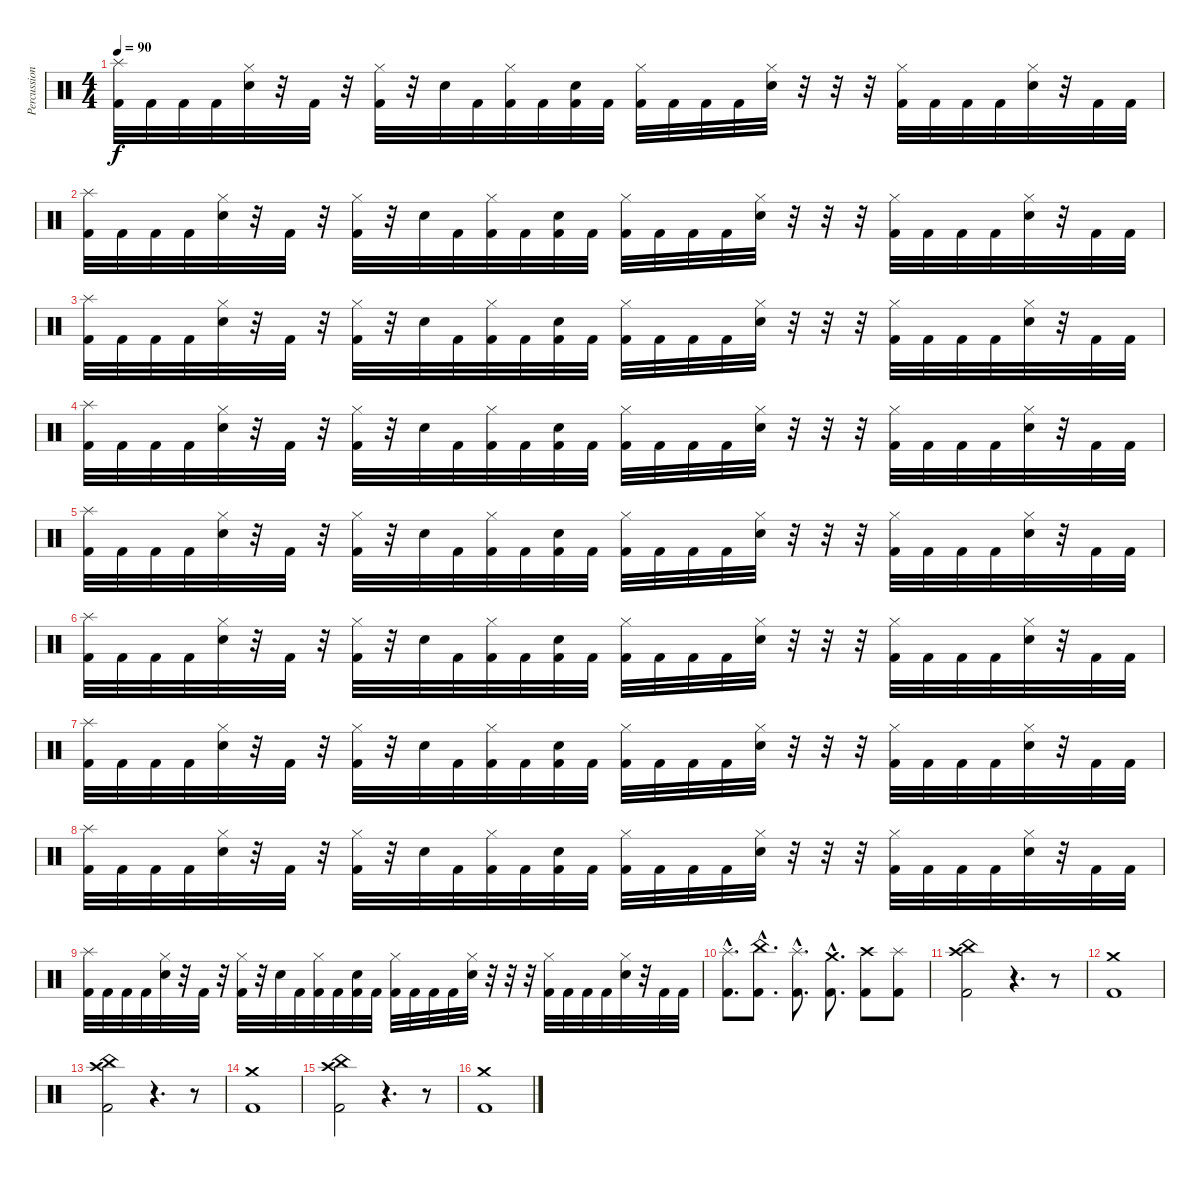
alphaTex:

\track ("Percussion" "Percussion") {instrument percussion}
\staff {score}
\articulation defaults
\ts (4 4)
\tempo 90
\clef neutral
\ks c
("Splash (hit)" "Kick (hit) 2").32{dy f} "Kick (hit) 2".32 "Kick (hit) 2".32 "Kick (hit) 2".32 ("Hi-Hat (closed)" "Snare (hit) 2").32 r.32 "Kick (hit) 2".32 r.32 ("Kick (hit) 2" "Hi-Hat (closed)").32 r.32 "Snare (hit) 2".32 "Kick (hit) 2".32 ("Kick (hit) 2" "Hi-Hat (closed)").32 "Kick (hit) 2".32 ("Snare (hit) 2" "Kick (hit) 2").32 "Kick (hit) 2".32 ("Kick (hit) 2" "Hi-Hat (closed)").32 "Kick (hit) 2".32 "Kick (hit) 2".32 "Kick (hit) 2".32 ("Snare (hit) 2" "Hi-Hat (closed)").32 r.32 r.32 r.32 ("Kick (hit) 2" "Hi-Hat (closed)").32 "Kick (hit) 2".32 "Kick (hit) 2".32 "Kick (hit) 2".32 ("Snare (hit) 2" "Hi-Hat (closed)").32 r.32 "Kick (hit) 2".32 "Kick (hit) 2".32 |
("Splash (hit)" "Kick (hit) 2").32 "Kick (hit) 2".32 "Kick (hit) 2".32 "Kick (hit) 2".32 ("Hi-Hat (closed)" "Snare (hit) 2").32 r.32 "Kick (hit) 2".32 r.32 ("Kick (hit) 2" "Hi-Hat (closed)").32 r.32 "Snare (hit) 2".32 "Kick (hit) 2".32 ("Kick (hit) 2" "Hi-Hat (closed)").32 "Kick (hit) 2".32 ("Snare (hit) 2" "Kick (hit) 2").32 "Kick (hit) 2".32 ("Kick (hit) 2" "Hi-Hat (closed)").32 "Kick (hit) 2".32 "Kick (hit) 2".32 "Kick (hit) 2".32 ("Snare (hit) 2" "Hi-Hat (closed)").32 r.32 r.32 r.32 ("Kick (hit) 2" "Hi-Hat (closed)").32 "Kick (hit) 2".32 "Kick (hit) 2".32 "Kick (hit) 2".32 ("Snare (hit) 2" "Hi-Hat (closed)").32 r.32 "Kick (hit) 2".32 "Kick (hit) 2".32 |
("Splash (hit)" "Kick (hit) 2").32 "Kick (hit) 2".32 "Kick (hit) 2".32 "Kick (hit) 2".32 ("Hi-Hat (closed)" "Snare (hit) 2").32 r.32 "Kick (hit) 2".32 r.32 ("Kick (hit) 2" "Hi-Hat (closed)").32 r.32 "Snare (hit) 2".32 "Kick (hit) 2".32 ("Kick (hit) 2" "Hi-Hat (closed)").32 "Kick (hit) 2".32 ("Snare (hit) 2" "Kick (hit) 2").32 "Kick (hit) 2".32 ("Kick (hit) 2" "Hi-Hat (closed)").32 "Kick (hit) 2".32 "Kick (hit) 2".32 "Kick (hit) 2".32 ("Snare (hit) 2" "Hi-Hat (closed)").32 r.32 r.32 r.32 ("Kick (hit) 2" "Hi-Hat (closed)").32 "Kick (hit) 2".32 "Kick (hit) 2".32 "Kick (hit) 2".32 ("Snare (hit) 2" "Hi-Hat (closed)").32 r.32 "Kick (hit) 2".32 "Kick (hit) 2".32 |
("Splash (hit)" "Kick (hit) 2").32 "Kick (hit) 2".32 "Kick (hit) 2".32 "Kick (hit) 2".32 ("Hi-Hat (closed)" "Snare (hit) 2").32 r.32 "Kick (hit) 2".32 r.32 ("Kick (hit) 2" "Hi-Hat (closed)").32 r.32 "Snare (hit) 2".32 "Kick (hit) 2".32 ("Kick (hit) 2" "Hi-Hat (closed)").32 "Kick (hit) 2".32 ("Snare (hit) 2" "Kick (hit) 2").32 "Kick (hit) 2".32 ("Kick (hit) 2" "Hi-Hat (closed)").32 "Kick (hit) 2".32 "Kick (hit) 2".32 "Kick (hit) 2".32 ("Snare (hit) 2" "Hi-Hat (closed)").32 r.32 r.32 r.32 ("Kick (hit) 2" "Hi-Hat (closed)").32 "Kick (hit) 2".32 "Kick (hit) 2".32 "Kick (hit) 2".32 ("Snare (hit) 2" "Hi-Hat (closed)").32 r.32 "Kick (hit) 2".32 "Kick (hit) 2".32 |
("Splash (hit)" "Kick (hit) 2").32 "Kick (hit) 2".32 "Kick (hit) 2".32 "Kick (hit) 2".32 ("Hi-Hat (closed)" "Snare (hit) 2").32 r.32 "Kick (hit) 2".32 r.32 ("Kick (hit) 2" "Hi-Hat (closed)").32 r.32 "Snare (hit) 2".32 "Kick (hit) 2".32 ("Kick (hit) 2" "Hi-Hat (closed)").32 "Kick (hit) 2".32 ("Snare (hit) 2" "Kick (hit) 2").32 "Kick (hit) 2".32 ("Kick (hit) 2" "Hi-Hat (closed)").32 "Kick (hit) 2".32 "Kick (hit) 2".32 "Kick (hit) 2".32 ("Snare (hit) 2" "Hi-Hat (closed)").32 r.32 r.32 r.32 ("Kick (hit) 2" "Hi-Hat (closed)").32 "Kick (hit) 2".32 "Kick (hit) 2".32 "Kick (hit) 2".32 ("Snare (hit) 2" "Hi-Hat (closed)").32 r.32 "Kick (hit) 2".32 "Kick (hit) 2".32 |
("Splash (hit)" "Kick (hit) 2").32 "Kick (hit) 2".32 "Kick (hit) 2".32 "Kick (hit) 2".32 ("Hi-Hat (closed)" "Snare (hit) 2").32 r.32 "Kick (hit) 2".32 r.32 ("Kick (hit) 2" "Hi-Hat (closed)").32 r.32 "Snare (hit) 2".32 "Kick (hit) 2".32 ("Kick (hit) 2" "Hi-Hat (closed)").32 "Kick (hit) 2".32 ("Snare (hit) 2" "Kick (hit) 2").32 "Kick (hit) 2".32 ("Kick (hit) 2" "Hi-Hat (closed)").32 "Kick (hit) 2".32 "Kick (hit) 2".32 "Kick (hit) 2".32 ("Snare (hit) 2" "Hi-Hat (closed)").32 r.32 r.32 r.32 ("Kick (hit) 2" "Hi-Hat (closed)").32 "Kick (hit) 2".32 "Kick (hit) 2".32 "Kick (hit) 2".32 ("Snare (hit) 2" "Hi-Hat (closed)").32 r.32 "Kick (hit) 2".32 "Kick (hit) 2".32 |
("Splash (hit)" "Kick (hit) 2").32 "Kick (hit) 2".32 "Kick (hit) 2".32 "Kick (hit) 2".32 ("Hi-Hat (closed)" "Snare (hit) 2").32 r.32 "Kick (hit) 2".32 r.32 ("Kick (hit) 2" "Hi-Hat (closed)").32 r.32 "Snare (hit) 2".32 "Kick (hit) 2".32 ("Kick (hit) 2" "Hi-Hat (closed)").32 "Kick (hit) 2".32 ("Snare (hit) 2" "Kick (hit) 2").32 "Kick (hit) 2".32 ("Kick (hit) 2" "Hi-Hat (closed)").32 "Kick (hit) 2".32 "Kick (hit) 2".32 "Kick (hit) 2".32 ("Snare (hit) 2" "Hi-Hat (closed)").32 r.32 r.32 r.32 ("Kick (hit) 2" "Hi-Hat (closed)").32 "Kick (hit) 2".32 "Kick (hit) 2".32 "Kick (hit) 2".32 ("Snare (hit) 2" "Hi-Hat (closed)").32 r.32 "Kick (hit) 2".32 "Kick (hit) 2".32 |
("Splash (hit)" "Kick (hit) 2").32 "Kick (hit) 2".32 "Kick (hit) 2".32 "Kick (hit) 2".32 ("Hi-Hat (closed)" "Snare (hit) 2").32 r.32 "Kick (hit) 2".32 r.32 ("Kick (hit) 2" "Hi-Hat (closed)").32 r.32 "Snare (hit) 2".32 "Kick (hit) 2".32 ("Kick (hit) 2" "Hi-Hat (closed)").32 "Kick (hit) 2".32 ("Snare (hit) 2" "Kick (hit) 2").32 "Kick (hit) 2".32 ("Kick (hit) 2" "Hi-Hat (closed)").32 "Kick (hit) 2".32 "Kick (hit) 2".32 "Kick (hit) 2".32 ("Snare (hit) 2" "Hi-Hat (closed)").32 r.32 r.32 r.32 ("Kick (hit) 2" "Hi-Hat (closed)").32 "Kick (hit) 2".32 "Kick (hit) 2".32 "Kick (hit) 2".32 ("Snare (hit) 2" "Hi-Hat (closed)").32 r.32 "Kick (hit) 2".32 "Kick (hit) 2".32 |
("Splash (hit)" "Kick (hit) 2").32 "Kick (hit) 2".32 "Kick (hit) 2".32 "Kick (hit) 2".32 ("Hi-Hat (closed)" "Snare (hit) 2").32 r.32 "Kick (hit) 2".32 r.32 ("Kick (hit) 2" "Hi-Hat (closed)").32 r.32 "Snare (hit) 2".32 "Kick (hit) 2".32 ("Kick (hit) 2" "Hi-Hat (closed)").32 "Kick (hit) 2".32 ("Snare (hit) 2" "Kick (hit) 2").32 "Kick (hit) 2".32 ("Kick (hit) 2" "Hi-Hat (closed)").32 "Kick (hit) 2".32 "Kick (hit) 2".32 "Kick (hit) 2".32 ("Snare (hit) 2" "Hi-Hat (closed)").32 r.32 r.32 r.32 ("Kick (hit) 2" "Hi-Hat (closed)").32 "Kick (hit) 2".32 "Kick (hit) 2".32 "Kick (hit) 2".32 ("Snare (hit) 2" "Hi-Hat (closed)").32 r.32 "Kick (hit) 2".32 "Kick (hit) 2".32 |
("Splash (hit)"{hac} "Kick (hit) 2"{hac}).8{d} ("China (hit)"{hac} "Kick (hit) 2"{hac}).8{d} ("Splash (hit)"{hac} "Kick (hit) 2"{hac}).8{d} ("Crash medium (hit)"{hac} "Kick (hit) 2"{hac}).8{d} ("Crash high (hit)" "Kick (hit) 2").8 ("Splash (hit)" "Kick (hit) 2").8 |
("Crash high (hit)" "China (hit)" "Kick (hit) 2").2 r.4{d} r.8 |
("Crash medium (hit)" "Kick (hit) 2").1 |
("Crash high (hit)" "China (hit)" "Kick (hit) 2").2 r.4{d} r.8 |
("Crash medium (hit)" "Kick (hit) 2").1 |
("Crash high (hit)" "China (hit)" "Kick (hit) 2").2 r.4{d} r.8 |
("Crash medium (hit)" "Kick (hit) 2").1
